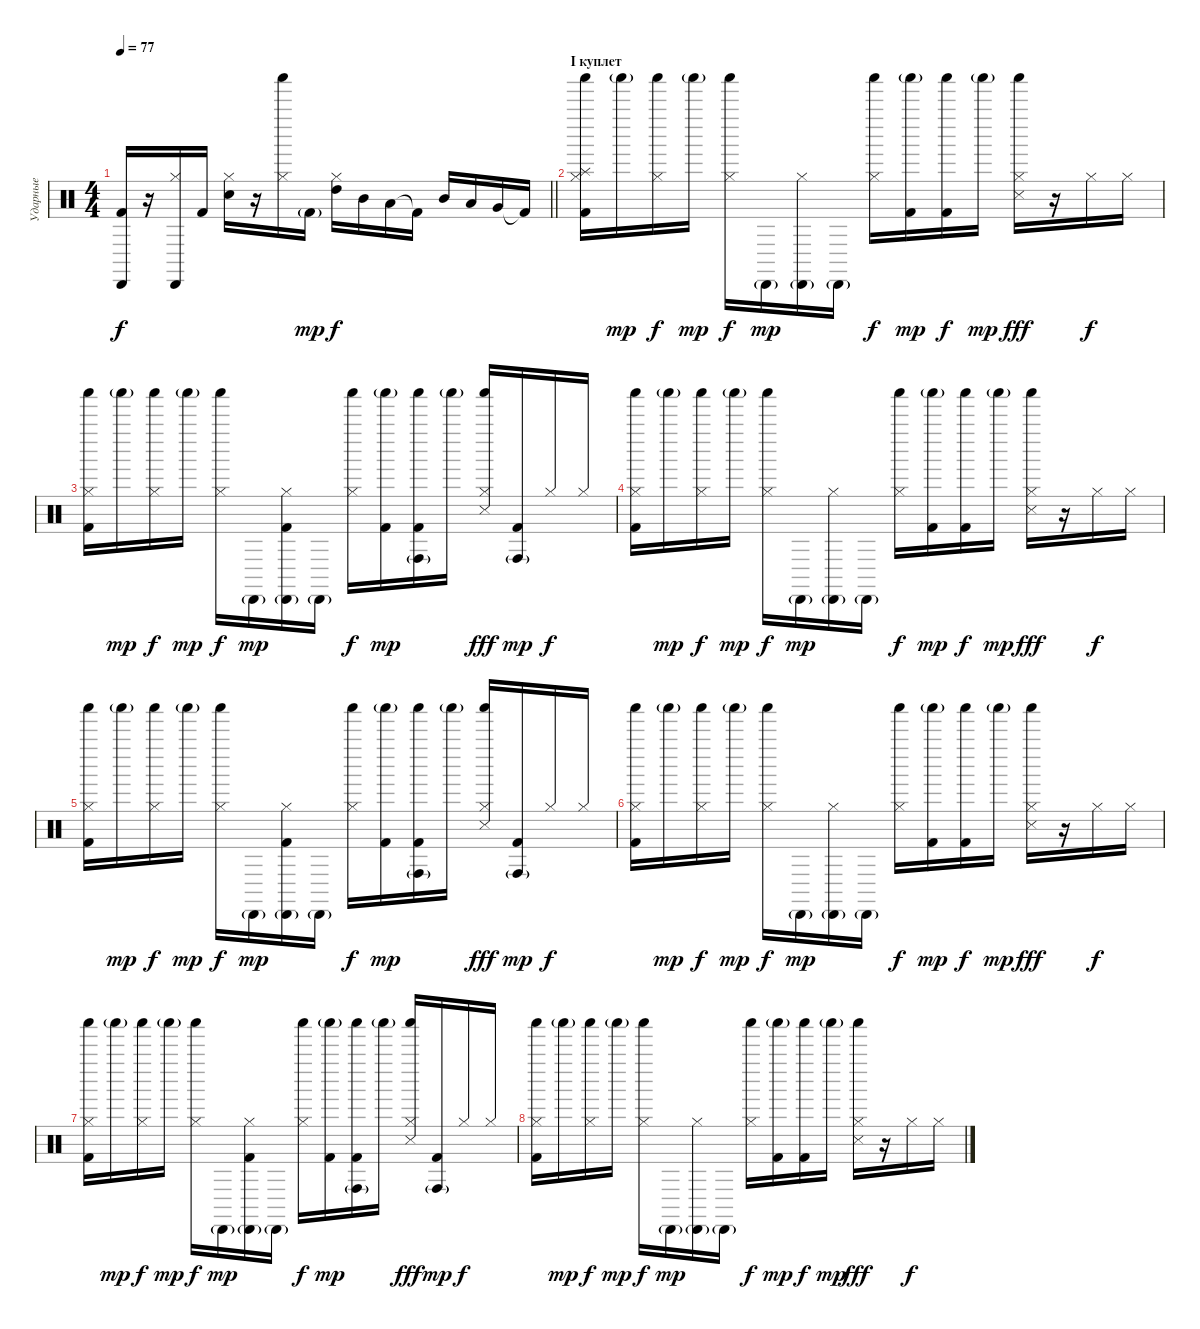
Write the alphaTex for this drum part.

\track ("Ударные" "Ударные") {instrument percussion}
\staff {score}
\articulation defaults
\ts (4 4)
\tempo 77
\clef neutral
\barLineRight lightlight
\ks c
("Kick (hit) 2" "Cabasa (hit)").16{dy f} r.16 ("Hi-Hat (closed)" "Cabasa (hit)").16 "Kick (hit) 2".16 ("Electric Snare (hit)" "Hi-Hat (closed)").16 r.16 ("Hi-Hat (closed)" "Shaker (hit)").16 "Kick (hit) 2"{g}.16{dy mp} ("High Tom (hit)" "Hi-Hat (closed)").16{dy f} "Mid Tom (hit)".16 "Low Tom (hit)".16 "Kick (hit) 2"{t}.16 "Mid Tom (hit)".16 "Low Tom (hit)".16 "Very Low Tom (hit)".16 "Kick (hit) 2"{t}.16 |
\section ("" "I куплет")
("Splash (hit)" "Kick (hit) 2" "Shaker (hit)" "Hi-Hat (closed)").16 "Shaker (hit)"{g}.16{dy mp} ("Shaker (hit)" "Hi-Hat (closed)").16{dy f} "Shaker (hit)"{g}.16{dy mp} ("Shaker (hit)" "Hi-Hat (closed)").16{dy f} "Cabasa (hit)"{g}.16{dy mp} ("Cabasa (hit)"{g} "Hi-Hat (closed)").16 "Cabasa (hit)"{g}.16 ("Shaker (hit)" "Hi-Hat (closed)").16{dy f} ("Shaker (hit)"{g} "Kick (hit) 2").16{dy mp} ("Shaker (hit)" "Kick (hit) 2").16{dy f} "Shaker (hit)"{g}.16{dy mp} ("Snare (side stick) 3" "Shaker (hit)" "Hi-Hat (closed)").16{dy fff} r.16 "Hi-Hat (closed)".16{dy f} "Hi-Hat (closed)".16 |
("Kick (hit) 2" "Shaker (hit)" "Hi-Hat (closed)").16 "Shaker (hit)"{g}.16{dy mp} ("Shaker (hit)" "Hi-Hat (closed)").16{dy f} "Shaker (hit)"{g}.16{dy mp} ("Shaker (hit)" "Hi-Hat (closed)").16{dy f} "Cabasa (hit)"{g}.16{dy mp} ("Kick (hit) 2" "Cabasa (hit)"{g} "Hi-Hat (closed)").16 "Cabasa (hit)"{g}.16 ("Shaker (hit)" "Hi-Hat (closed)").16{dy f} ("Shaker (hit)"{g} "Kick (hit) 2").16{dy mp} ("Conga high (hit)"{g} "Shaker (hit)" "Kick (hit) 2").16 "Shaker (hit)"{g}.16 ("Snare (side stick) 3" "Shaker (hit)" "Hi-Hat (closed)").16{dy fff} ("Conga high (hit)"{g} "Kick (hit) 2").16{dy mp} "Hi-Hat (closed)".16{dy f} "Hi-Hat (closed)".16 |
("Kick (hit) 2" "Shaker (hit)" "Hi-Hat (closed)").16 "Shaker (hit)"{g}.16{dy mp} ("Shaker (hit)" "Hi-Hat (closed)").16{dy f} "Shaker (hit)"{g}.16{dy mp} ("Shaker (hit)" "Hi-Hat (closed)").16{dy f} "Cabasa (hit)"{g}.16{dy mp} ("Cabasa (hit)"{g} "Hi-Hat (closed)").16 "Cabasa (hit)"{g}.16 ("Shaker (hit)" "Hi-Hat (closed)").16{dy f} ("Shaker (hit)"{g} "Kick (hit) 2").16{dy mp} ("Shaker (hit)" "Kick (hit) 2").16{dy f} "Shaker (hit)"{g}.16{dy mp} ("Snare (side stick) 3" "Shaker (hit)" "Hi-Hat (closed)").16{dy fff} r.16 "Hi-Hat (closed)".16{dy f} "Hi-Hat (closed)".16 |
("Kick (hit) 2" "Shaker (hit)" "Hi-Hat (closed)").16 "Shaker (hit)"{g}.16{dy mp} ("Shaker (hit)" "Hi-Hat (closed)").16{dy f} "Shaker (hit)"{g}.16{dy mp} ("Shaker (hit)" "Hi-Hat (closed)").16{dy f} "Cabasa (hit)"{g}.16{dy mp} ("Kick (hit) 2" "Cabasa (hit)"{g} "Hi-Hat (closed)").16 "Cabasa (hit)"{g}.16 ("Shaker (hit)" "Hi-Hat (closed)").16{dy f} ("Shaker (hit)"{g} "Kick (hit) 2").16{dy mp} ("Conga high (hit)"{g} "Shaker (hit)" "Kick (hit) 2").16 "Shaker (hit)"{g}.16 ("Snare (side stick) 3" "Shaker (hit)" "Hi-Hat (closed)").16{dy fff} ("Conga high (hit)"{g} "Kick (hit) 2").16{dy mp} "Hi-Hat (closed)".16{dy f} "Hi-Hat (closed)".16 |
("Kick (hit) 2" "Shaker (hit)" "Hi-Hat (closed)").16 "Shaker (hit)"{g}.16{dy mp} ("Shaker (hit)" "Hi-Hat (closed)").16{dy f} "Shaker (hit)"{g}.16{dy mp} ("Shaker (hit)" "Hi-Hat (closed)").16{dy f} "Cabasa (hit)"{g}.16{dy mp} ("Cabasa (hit)"{g} "Hi-Hat (closed)").16 "Cabasa (hit)"{g}.16 ("Shaker (hit)" "Hi-Hat (closed)").16{dy f} ("Shaker (hit)"{g} "Kick (hit) 2").16{dy mp} ("Shaker (hit)" "Kick (hit) 2").16{dy f} "Shaker (hit)"{g}.16{dy mp} ("Snare (side stick) 3" "Shaker (hit)" "Hi-Hat (closed)").16{dy fff} r.16 "Hi-Hat (closed)".16{dy f} "Hi-Hat (closed)".16 |
("Kick (hit) 2" "Shaker (hit)" "Hi-Hat (closed)").16 "Shaker (hit)"{g}.16{dy mp} ("Shaker (hit)" "Hi-Hat (closed)").16{dy f} "Shaker (hit)"{g}.16{dy mp} ("Shaker (hit)" "Hi-Hat (closed)").16{dy f} "Cabasa (hit)"{g}.16{dy mp} ("Kick (hit) 2" "Cabasa (hit)"{g} "Hi-Hat (closed)").16 "Cabasa (hit)"{g}.16 ("Shaker (hit)" "Hi-Hat (closed)").16{dy f} ("Shaker (hit)"{g} "Kick (hit) 2").16{dy mp} ("Conga high (hit)"{g} "Shaker (hit)" "Kick (hit) 2").16 "Shaker (hit)"{g}.16 ("Snare (side stick) 3" "Shaker (hit)" "Hi-Hat (closed)").16{dy fff} ("Conga high (hit)"{g} "Kick (hit) 2").16{dy mp} "Hi-Hat (closed)".16{dy f} "Hi-Hat (closed)".16 |
("Kick (hit) 2" "Shaker (hit)" "Hi-Hat (closed)").16 "Shaker (hit)"{g}.16{dy mp} ("Shaker (hit)" "Hi-Hat (closed)").16{dy f} "Shaker (hit)"{g}.16{dy mp} ("Shaker (hit)" "Hi-Hat (closed)").16{dy f} "Cabasa (hit)"{g}.16{dy mp} ("Cabasa (hit)"{g} "Hi-Hat (closed)").16 "Cabasa (hit)"{g}.16 ("Shaker (hit)" "Hi-Hat (closed)").16{dy f} ("Shaker (hit)"{g} "Kick (hit) 2").16{dy mp} ("Shaker (hit)" "Kick (hit) 2").16{dy f} "Shaker (hit)"{g}.16{dy mp} ("Snare (side stick) 3" "Shaker (hit)" "Hi-Hat (closed)").16{dy fff} r.16 "Hi-Hat (closed)".16{dy f} "Hi-Hat (closed)".16
